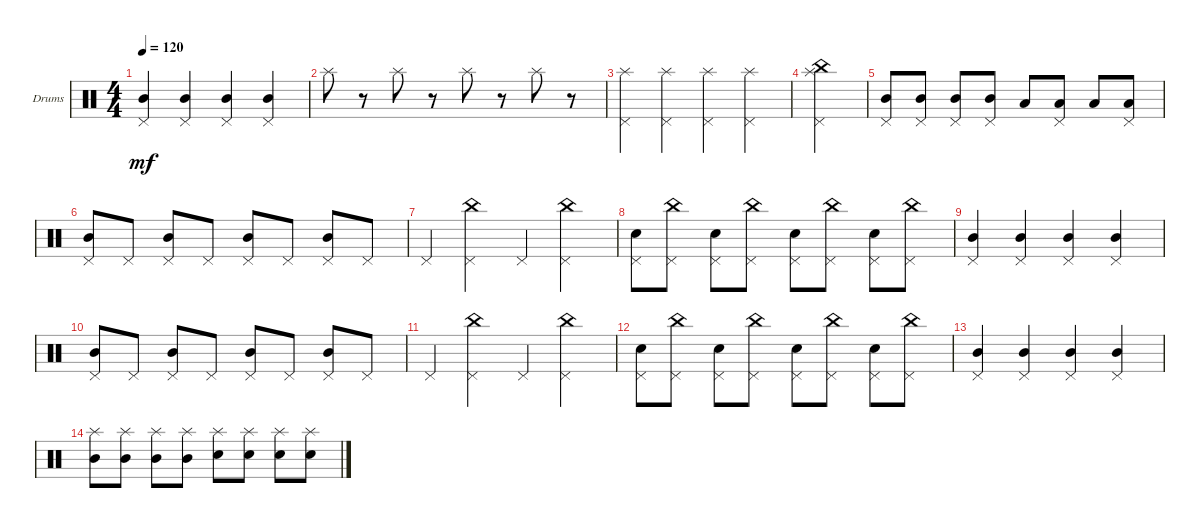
\defaultSystemsLayout 4
\bracketExtendMode groupsimilarinstruments
\firstSystemTrackNameOrientation horizontal
\otherSystemsTrackNameOrientation horizontal
\track ("Drumkit" "Drums") {mute instrument percussion}
\staff {score}
\articulation defaults
\ts (4 4)
\tempo 120
\clef neutral
\scale
0.333333
\ks c
("Pedal Hi-Hat (hit)" "Mid Tom (hit)").4{dy mf} ("Pedal Hi-Hat (hit)" "Mid Tom (hit)").4 ("Pedal Hi-Hat (hit)" "Mid Tom (hit)").4 ("Pedal Hi-Hat (hit)" "Mid Tom (hit)").4 |
\scale
0.333333 "Splash (hit)".8 r.8 "Splash (hit)".8 r.8 "Splash (hit)".8 r.8 "Splash (hit)".8 r.8 |
\scale
0.333333 ("Splash (hit)" "Pedal Hi-Hat (hit)").4 ("Splash (hit)" "Pedal Hi-Hat (hit)").4 ("Splash (hit)" "Pedal Hi-Hat (hit)").4 ("Splash (hit)" "Pedal Hi-Hat (hit)").4 |
\scale
0.333333 ("China (hit)" "Splash (hit)" "Pedal Hi-Hat (hit)").4 |
\scale
0.333333 ("Mid Tom (hit)" "Pedal Hi-Hat (hit)").8 ("Mid Tom (hit)" "Pedal Hi-Hat (hit)").8 ("Mid Tom (hit)" "Pedal Hi-Hat (hit)").8 ("Mid Tom (hit)" "Pedal Hi-Hat (hit)").8 "Low Tom (hit)".8 ("Low Tom (hit)" "Pedal Hi-Hat (hit)").8 "Low Tom (hit)".8 ("Low Tom (hit)" "Pedal Hi-Hat (hit)").8 |
\scale
0.333333 ("Pedal Hi-Hat (hit)" "Mid Tom (hit)").8 "Pedal Hi-Hat (hit)".8 ("Pedal Hi-Hat (hit)" "Mid Tom (hit)").8 "Pedal Hi-Hat (hit)".8 ("Pedal Hi-Hat (hit)" "Mid Tom (hit)").8 "Pedal Hi-Hat (hit)".8 ("Pedal Hi-Hat (hit)" "Mid Tom (hit)").8 "Pedal Hi-Hat (hit)".8 |
\scale
0.333333 "Pedal Hi-Hat (hit)".4 ("Pedal Hi-Hat (hit)" "China (hit)").4 "Pedal Hi-Hat (hit)".4 ("Pedal Hi-Hat (hit)" "China (hit)").4 |
\scale
0.333333 ("Pedal Hi-Hat (hit)" "Snare (hit) 2").8 ("Pedal Hi-Hat (hit)" "China (hit)").8 ("Pedal Hi-Hat (hit)" "Snare (hit) 2").8 ("Pedal Hi-Hat (hit)" "China (hit)").8 ("Pedal Hi-Hat (hit)" "Snare (hit) 2").8 ("Pedal Hi-Hat (hit)" "China (hit)").8 ("Pedal Hi-Hat (hit)" "Snare (hit) 2").8 ("Pedal Hi-Hat (hit)" "China (hit)").8 |
\scale
0.333333 ("Pedal Hi-Hat (hit)" "Mid Tom (hit)").4 ("Pedal Hi-Hat (hit)" "Mid Tom (hit)").4 ("Pedal Hi-Hat (hit)" "Mid Tom (hit)").4 ("Pedal Hi-Hat (hit)" "Mid Tom (hit)").4 |
\scale
0.333333 ("Pedal Hi-Hat (hit)" "Mid Tom (hit)").8 "Pedal Hi-Hat (hit)".8 ("Pedal Hi-Hat (hit)" "Mid Tom (hit)").8 "Pedal Hi-Hat (hit)".8 ("Pedal Hi-Hat (hit)" "Mid Tom (hit)").8 "Pedal Hi-Hat (hit)".8 ("Pedal Hi-Hat (hit)" "Mid Tom (hit)").8 "Pedal Hi-Hat (hit)".8 |
\scale
0.333333 "Pedal Hi-Hat (hit)".4 ("Pedal Hi-Hat (hit)" "China (hit)").4 "Pedal Hi-Hat (hit)".4 ("Pedal Hi-Hat (hit)" "China (hit)").4 |
\scale
0.333333 ("Pedal Hi-Hat (hit)" "Snare (hit) 2").8 ("Pedal Hi-Hat (hit)" "China (hit)").8 ("Pedal Hi-Hat (hit)" "Snare (hit) 2").8 ("Pedal Hi-Hat (hit)" "China (hit)").8 ("Pedal Hi-Hat (hit)" "Snare (hit) 2").8 ("Pedal Hi-Hat (hit)" "China (hit)").8 ("Pedal Hi-Hat (hit)" "Snare (hit) 2").8 ("Pedal Hi-Hat (hit)" "China (hit)").8 |
\scale
0.333333 ("Pedal Hi-Hat (hit)" "Mid Tom (hit)").4 ("Pedal Hi-Hat (hit)" "Mid Tom (hit)").4 ("Pedal Hi-Hat (hit)" "Mid Tom (hit)").4 ("Pedal Hi-Hat (hit)" "Mid Tom (hit)").4 |
\scale
0.333333 ("Splash (hit)" "Mid Tom (hit)").8 ("Splash (hit)" "Mid Tom (hit)").8 ("Splash (hit)" "Mid Tom (hit)").8 ("Splash (hit)" "Mid Tom (hit)").8 ("Splash (hit)" "Snare (hit) 2").8 ("Splash (hit)" "Snare (hit) 2").8 ("Splash (hit)" "Snare (hit) 2").8 ("Splash (hit)" "Snare (hit) 2").8 |
\scale
0.333333 |
\scale
0.333333
